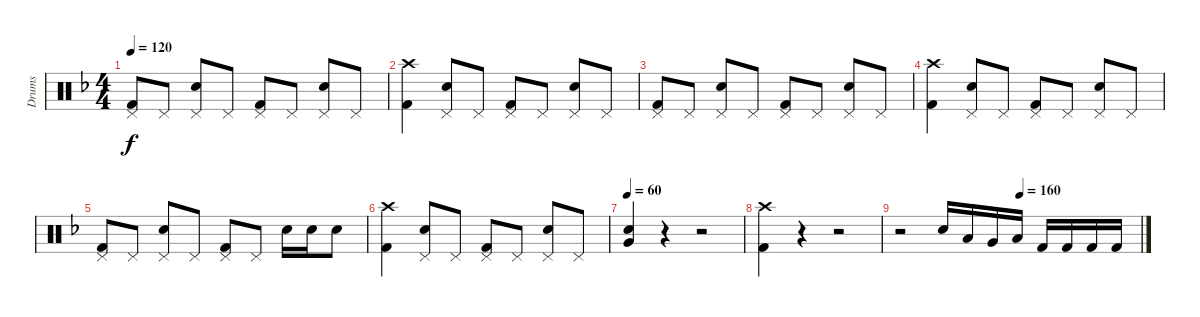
\track ("Drums" "Drums") {instrument percussion}
\staff {score}
\articulation defaults
\ts (4 4)
\tempo 120
\clef neutral
\ks f
("Pedal Hi-Hat (hit)" "Kick (hit) 2").8{dy f} "Pedal Hi-Hat (hit)".8 ("Pedal Hi-Hat (hit)" "Electric Snare (hit)").8 "Pedal Hi-Hat (hit)".8 ("Pedal Hi-Hat (hit)" "Kick (hit) 2").8 "Pedal Hi-Hat (hit)".8 ("Pedal Hi-Hat (hit)" "Electric Snare (hit)").8 "Pedal Hi-Hat (hit)".8 |
("Crash high (hit)" "Kick (hit) 2").4 ("Pedal Hi-Hat (hit)" "Electric Snare (hit)").8 "Pedal Hi-Hat (hit)".8 ("Pedal Hi-Hat (hit)" "Kick (hit) 2").8 "Pedal Hi-Hat (hit)".8 ("Pedal Hi-Hat (hit)" "Electric Snare (hit)").8 "Pedal Hi-Hat (hit)".8 |
("Pedal Hi-Hat (hit)" "Kick (hit) 2").8 "Pedal Hi-Hat (hit)".8 ("Pedal Hi-Hat (hit)" "Electric Snare (hit)").8 "Pedal Hi-Hat (hit)".8 ("Pedal Hi-Hat (hit)" "Kick (hit) 2").8 "Pedal Hi-Hat (hit)".8 ("Pedal Hi-Hat (hit)" "Electric Snare (hit)").8 "Pedal Hi-Hat (hit)".8 |
("Crash high (hit)" "Kick (hit) 2").4 ("Pedal Hi-Hat (hit)" "Electric Snare (hit)").8 "Pedal Hi-Hat (hit)".8 ("Pedal Hi-Hat (hit)" "Kick (hit) 2").8 "Pedal Hi-Hat (hit)".8 ("Pedal Hi-Hat (hit)" "Electric Snare (hit)").8 "Pedal Hi-Hat (hit)".8 |
("Pedal Hi-Hat (hit)" "Kick (hit) 2").8 "Pedal Hi-Hat (hit)".8 ("Pedal Hi-Hat (hit)" "Electric Snare (hit)").8 "Pedal Hi-Hat (hit)".8 ("Pedal Hi-Hat (hit)" "Kick (hit) 2").8 "Pedal Hi-Hat (hit)".8 "Electric Snare (hit)".16 "Electric Snare (hit)".16 "Electric Snare (hit)".8 |
("Crash high (hit)" "Kick (hit) 2").4 ("Pedal Hi-Hat (hit)" "Electric Snare (hit)").8 "Pedal Hi-Hat (hit)".8 ("Pedal Hi-Hat (hit)" "Kick (hit) 2").8 "Pedal Hi-Hat (hit)".8 ("Pedal Hi-Hat (hit)" "Electric Snare (hit)").8 "Pedal Hi-Hat (hit)".8 |
\tempo 60
("Very Low Tom (hit)" "Electric Snare (hit)").4 r.4 r.2 |
("Crash high (hit)" "Kick (hit) 2").4 r.4 r.2 |
\tempo (160 0.5)
r.2 "Electric Snare (hit)".16 "Low Tom (hit)".16 "Very Low Tom (hit)".16 "Low Floor Tom (hit)".16 "Kick (hit) 2".16 "Kick (hit) 2".16 "Kick (hit) 2".16 "Kick (hit) 2".16
